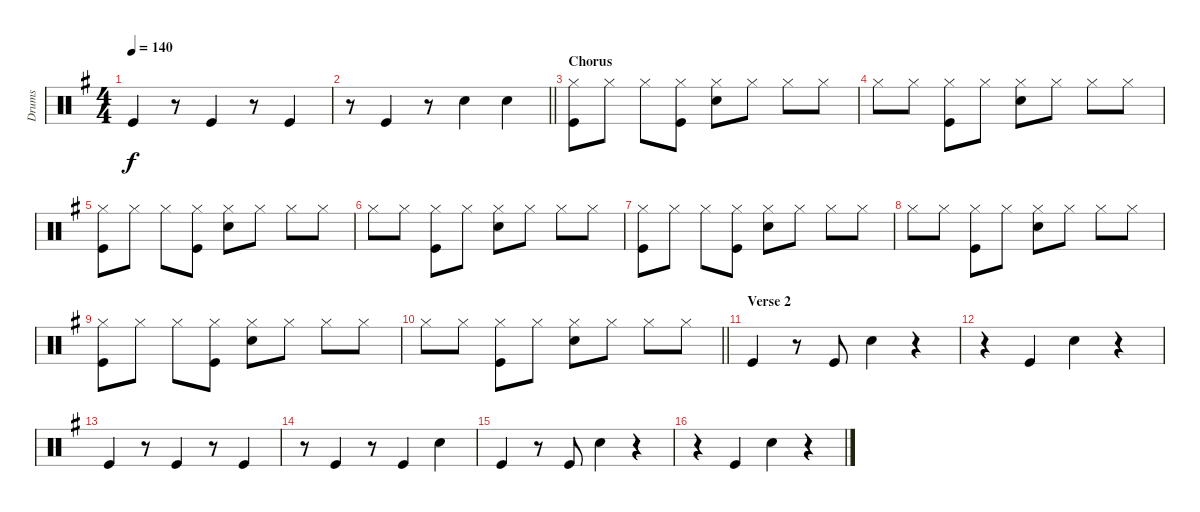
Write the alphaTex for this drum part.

\track ("Drums" "Drums") {instrument percussion}
\staff {score}
\articulation defaults
\ts (4 4)
\tempo 140
\clef neutral
\ks g "Kick (hit)".4{dy f}
r.8 "Kick (hit)".4 r.8 "Kick (hit)".4 |
\barLineRight lightlight
r.8 "Kick (hit)".4 r.8 "Snare (hit) 2".4 "Snare (hit) 2".4 |
\section ("" "Chorus")
("Hi-Hat (closed)" "Kick (hit)").8 "Hi-Hat (closed)".8 "Hi-Hat (closed)".8 ("Hi-Hat (closed)" "Kick (hit)").8 ("Hi-Hat (closed)" "Snare (hit) 2").8 "Hi-Hat (closed)".8 "Hi-Hat (closed)".8 "Hi-Hat (closed)".8 |
"Hi-Hat (closed)".8 "Hi-Hat (closed)".8 ("Hi-Hat (closed)" "Kick (hit)").8 "Hi-Hat (closed)".8 ("Hi-Hat (closed)" "Snare (hit) 2").8 "Hi-Hat (closed)".8 "Hi-Hat (closed)".8 "Hi-Hat (closed)".8 |
("Hi-Hat (closed)" "Kick (hit)").8 "Hi-Hat (closed)".8 "Hi-Hat (closed)".8 ("Hi-Hat (closed)" "Kick (hit)").8 ("Hi-Hat (closed)" "Snare (hit) 2").8 "Hi-Hat (closed)".8 "Hi-Hat (closed)".8 "Hi-Hat (closed)".8 |
"Hi-Hat (closed)".8 "Hi-Hat (closed)".8 ("Hi-Hat (closed)" "Kick (hit)").8 "Hi-Hat (closed)".8 ("Hi-Hat (closed)" "Snare (hit) 2").8 "Hi-Hat (closed)".8 "Hi-Hat (closed)".8 "Hi-Hat (closed)".8 |
("Hi-Hat (closed)" "Kick (hit)").8 "Hi-Hat (closed)".8 "Hi-Hat (closed)".8 ("Hi-Hat (closed)" "Kick (hit)").8 ("Hi-Hat (closed)" "Snare (hit) 2").8 "Hi-Hat (closed)".8 "Hi-Hat (closed)".8 "Hi-Hat (closed)".8 |
"Hi-Hat (closed)".8 "Hi-Hat (closed)".8 ("Hi-Hat (closed)" "Kick (hit)").8 "Hi-Hat (closed)".8 ("Hi-Hat (closed)" "Snare (hit) 2").8 "Hi-Hat (closed)".8 "Hi-Hat (closed)".8 "Hi-Hat (closed)".8 |
("Hi-Hat (closed)" "Kick (hit)").8 "Hi-Hat (closed)".8 "Hi-Hat (closed)".8 ("Hi-Hat (closed)" "Kick (hit)").8 ("Hi-Hat (closed)" "Snare (hit) 2").8 "Hi-Hat (closed)".8 "Hi-Hat (closed)".8 "Hi-Hat (closed)".8 |
\barLineRight lightlight "Hi-Hat (closed)".8 "Hi-Hat (closed)".8
("Hi-Hat (closed)" "Kick (hit)").8 "Hi-Hat (closed)".8 ("Hi-Hat (closed)" "Snare (hit) 2").8 "Hi-Hat (closed)".8 "Hi-Hat (closed)".8 "Hi-Hat (closed)".8 |
\section ("" "Verse 2")
"Kick (hit)".4 r.8 "Kick (hit)".8 "Snare (hit) 2".4 r.4 |
r.4 "Kick (hit)".4 "Snare (hit) 2".4 r.4 |
"Kick (hit)".4 r.8 "Kick (hit)".4 r.8 "Kick (hit)".4 |
r.8 "Kick (hit)".4 r.8 "Kick (hit)".4 "Snare (hit) 2".4 |
"Kick (hit)".4 r.8 "Kick (hit)".8 "Snare (hit) 2".4 r.4 |
r.4 "Kick (hit)".4 "Snare (hit) 2".4 r.4
